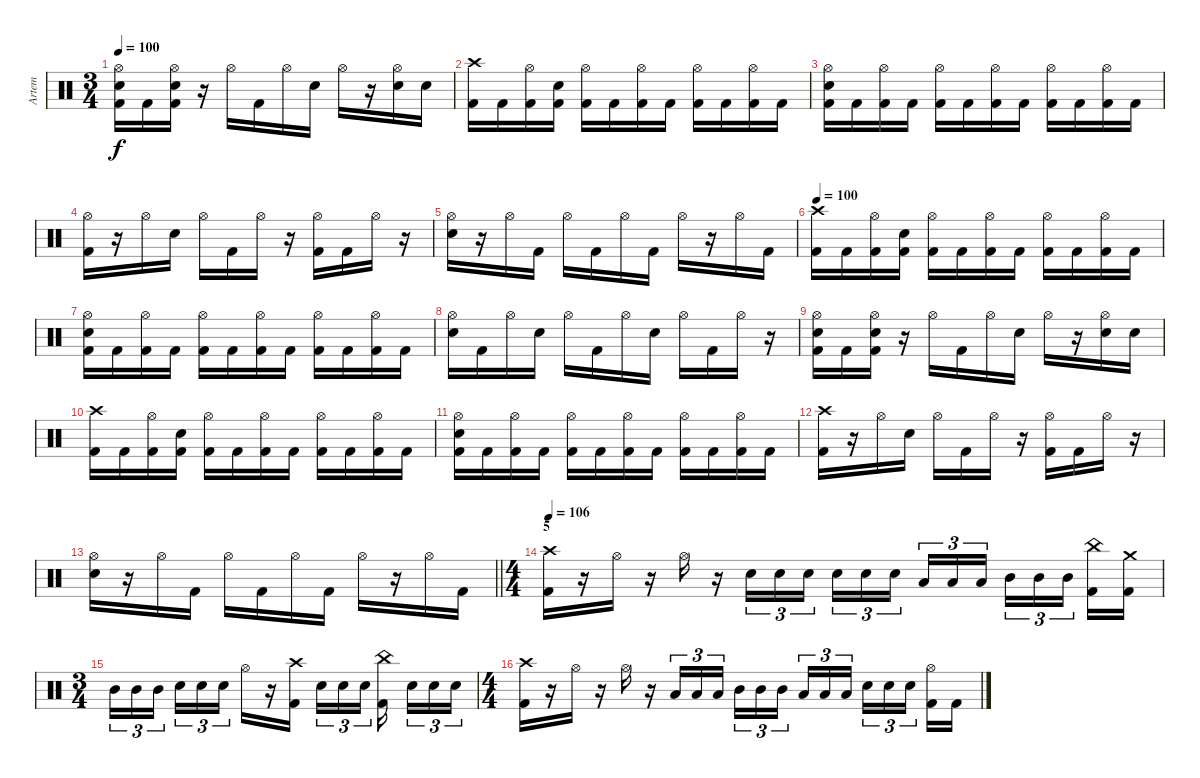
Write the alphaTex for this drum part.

\track ("Artem" "Artem") {instrument percussion}
\staff {score}
\articulation defaults
\ts (3 4)
\tempo 100
\clef neutral
\ks c
("Hi-Hat (open)" "Kick (hit) 2" "Snare (hit) 2").16{dy f} "Kick (hit) 2".16 ("Hi-Hat (open)" "Kick (hit) 2" "Snare (hit) 2").16 r.16 "Hi-Hat (open)".16 "Kick (hit) 2".16 "Hi-Hat (open)".16 "Snare (hit) 2".16 "Hi-Hat (open)".16 r.16 ("Hi-Hat (open)" "Snare (hit) 2").16 "Snare (hit) 2".16 |
("Kick (hit) 2" "Crash high (hit)").16 "Kick (hit) 2".16 ("Hi-Hat (open)" "Kick (hit) 2").16 ("Snare (hit) 2" "Kick (hit) 2").16 ("Hi-Hat (open)" "Kick (hit) 2").16 "Kick (hit) 2".16 ("Hi-Hat (open)" "Kick (hit) 2").16 "Kick (hit) 2".16 ("Hi-Hat (open)" "Kick (hit) 2").16 "Kick (hit) 2".16 ("Hi-Hat (open)" "Kick (hit) 2").16 "Kick (hit) 2".16 |
("Kick (hit) 2" "Snare (hit) 2" "Hi-Hat (open)").16 "Kick (hit) 2".16 ("Kick (hit) 2" "Hi-Hat (open)").16 "Kick (hit) 2".16 ("Hi-Hat (open)" "Kick (hit) 2").16 "Kick (hit) 2".16 ("Hi-Hat (open)" "Kick (hit) 2").16 "Kick (hit) 2".16 ("Hi-Hat (open)" "Kick (hit) 2").16 "Kick (hit) 2".16 ("Hi-Hat (open)" "Kick (hit) 2").16 "Kick (hit) 2".16 |
("Kick (hit) 2" "Hi-Hat (open)").16 r.16 "Hi-Hat (open)".16 "Snare (hit) 2".16 "Hi-Hat (open)".16 "Kick (hit) 2".16 "Hi-Hat (open)".16 r.16 ("Hi-Hat (open)" "Kick (hit) 2").16 "Kick (hit) 2".16 "Hi-Hat (open)".16 r.16 |
("Hi-Hat (open)" "Snare (hit) 2").16 r.16 "Hi-Hat (open)".16 "Kick (hit) 2".16 "Hi-Hat (open)".16 "Kick (hit) 2".16 "Hi-Hat (open)".16 "Kick (hit) 2".16 "Hi-Hat (open)".16 r.16 "Hi-Hat (open)".16 "Kick (hit) 2".16 |
\tempo 100
("Kick (hit) 2" "Crash high (hit)").16 "Kick (hit) 2".16 ("Hi-Hat (open)" "Kick (hit) 2").16 ("Snare (hit) 2" "Kick (hit) 2").16 ("Hi-Hat (open)" "Kick (hit) 2").16 "Kick (hit) 2".16 ("Hi-Hat (open)" "Kick (hit) 2").16 "Kick (hit) 2".16 ("Hi-Hat (open)" "Kick (hit) 2").16 "Kick (hit) 2".16 ("Hi-Hat (open)" "Kick (hit) 2").16 "Kick (hit) 2".16 |
("Kick (hit) 2" "Snare (hit) 2" "Hi-Hat (open)").16 "Kick (hit) 2".16 ("Kick (hit) 2" "Hi-Hat (open)").16 "Kick (hit) 2".16 ("Hi-Hat (open)" "Kick (hit) 2").16 "Kick (hit) 2".16 ("Hi-Hat (open)" "Kick (hit) 2").16 "Kick (hit) 2".16 ("Hi-Hat (open)" "Kick (hit) 2").16 "Kick (hit) 2".16 ("Hi-Hat (open)" "Kick (hit) 2").16 "Kick (hit) 2".16 |
("Hi-Hat (open)" "Snare (hit) 2").16 "Kick (hit) 2".16 "Hi-Hat (open)".16 "Snare (hit) 2".16 "Hi-Hat (open)".16 "Kick (hit) 2".16 "Hi-Hat (open)".16 "Snare (hit) 2".16 "Hi-Hat (open)".16 "Kick (hit) 2".16 "Hi-Hat (open)".16 r.16 |
("Hi-Hat (open)" "Kick (hit) 2" "Snare (hit) 2").16 "Kick (hit) 2".16 ("Hi-Hat (open)" "Kick (hit) 2" "Snare (hit) 2").16 r.16 "Hi-Hat (open)".16 "Kick (hit) 2".16 "Hi-Hat (open)".16 "Snare (hit) 2".16 "Hi-Hat (open)".16 r.16 ("Hi-Hat (open)" "Snare (hit) 2").16 "Snare (hit) 2".16 |
("Kick (hit) 2" "Crash high (hit)").16 "Kick (hit) 2".16 ("Hi-Hat (open)" "Kick (hit) 2").16 ("Snare (hit) 2" "Kick (hit) 2").16 ("Hi-Hat (open)" "Kick (hit) 2").16 "Kick (hit) 2".16 ("Hi-Hat (open)" "Kick (hit) 2").16 "Kick (hit) 2".16 ("Hi-Hat (open)" "Kick (hit) 2").16 "Kick (hit) 2".16 ("Hi-Hat (open)" "Kick (hit) 2").16 "Kick (hit) 2".16 |
("Kick (hit) 2" "Snare (hit) 2" "Hi-Hat (open)").16 "Kick (hit) 2".16 ("Kick (hit) 2" "Hi-Hat (open)").16 "Kick (hit) 2".16 ("Hi-Hat (open)" "Kick (hit) 2").16 "Kick (hit) 2".16 ("Hi-Hat (open)" "Kick (hit) 2").16 "Kick (hit) 2".16 ("Hi-Hat (open)" "Kick (hit) 2").16 "Kick (hit) 2".16 ("Hi-Hat (open)" "Kick (hit) 2").16 "Kick (hit) 2".16 |
("Kick (hit) 2" "Crash high (hit)").16 r.16 "Hi-Hat (open)".16 "Snare (hit) 2".16 "Hi-Hat (open)".16 "Kick (hit) 2".16 "Hi-Hat (open)".16 r.16 ("Hi-Hat (open)" "Kick (hit) 2").16 "Kick (hit) 2".16 "Hi-Hat (open)".16 r.16 |
\barLineRight lightlight
("Hi-Hat (open)" "Snare (hit) 2").16 r.16 "Hi-Hat (open)".16 "Kick (hit) 2".16 "Hi-Hat (open)".16 "Kick (hit) 2".16 "Hi-Hat (open)".16 "Kick (hit) 2".16 "Hi-Hat (open)".16 r.16 "Hi-Hat (open)".16 "Kick (hit) 2".16 |
\ts (4 4)
\section ("" "5")
\tempo 106
("Crash high (hit)" "Kick (hit) 2").16 r.16 "Hi-Hat (open)".16 r.16 "Hi-Hat (open)".16 r.16 "Snare (hit) 2".16{tu (3 2)} "Snare (hit) 2".16{tu (3 2)} "Snare (hit) 2".16{tu (3 2)} "Snare (hit) 2".16{tu (3 2)} "Snare (hit) 2".16{tu (3 2)} "Snare (hit) 2".16{tu (3 2) beam splitsecondary} "Low Tom (hit)".16{tu (3 2)} "Low Tom (hit)".16{tu (3 2)} "Low Tom (hit)".16{tu (3 2)} "Mid Tom (hit)".16{tu (3 2)} "Mid Tom (hit)".16{tu (3 2)} "Mid Tom (hit)".16{tu (3 2) beam splitsecondary} ("China (hit)" "Kick (hit) 2").16 ("Crash medium (hit)" "Kick (hit) 2").16 |
\ts (3 4)
"Mid Tom (hit)".16{tu (3 2)} "Mid Tom (hit)".16{tu (3 2)} "Mid Tom (hit)".16{tu (3 2) beam splitsecondary} "Snare (hit) 2".16{tu (3 2)} "Snare (hit) 2".16{tu (3 2)} "Snare (hit) 2".16{tu (3 2)} "Hi-Hat (open)".16 r.16 ("Crash high (hit)" "Kick (hit) 2").16{beam splitsecondary} "Snare (hit) 2".16{tu (3 2)} "Snare (hit) 2".16{tu (3 2)} "Snare (hit) 2".16{tu (3 2) beam splitsecondary} ("Kick (hit) 2" "China (hit)").16{beam splitsecondary} "Snare (hit) 2".16{tu (3 2)} "Snare (hit) 2".16{tu (3 2)} "Snare (hit) 2".16{tu (3 2)} |
\ts (4 4)
("Crash high (hit)" "Kick (hit) 2").16 r.16 "Hi-Hat (open)".16 r.16 "Hi-Hat (open)".16 r.16 "Low Tom (hit)".16{tu (3 2)} "Low Tom (hit)".16{tu (3 2)} "Low Tom (hit)".16{tu (3 2)} "Mid Tom (hit)".16{tu (3 2)} "Mid Tom (hit)".16{tu (3 2)} "Mid Tom (hit)".16{tu (3 2) beam splitsecondary} "Low Tom (hit)".16{tu (3 2)} "Low Tom (hit)".16{tu (3 2)} "Low Tom (hit)".16{tu (3 2)} "Snare (hit) 2".16{tu (3 2)} "Snare (hit) 2".16{tu (3 2)} "Snare (hit) 2".16{tu (3 2) beam splitsecondary} ("Hi-Hat (open)" "Kick (hit) 2").16 "Kick (hit) 2".16
